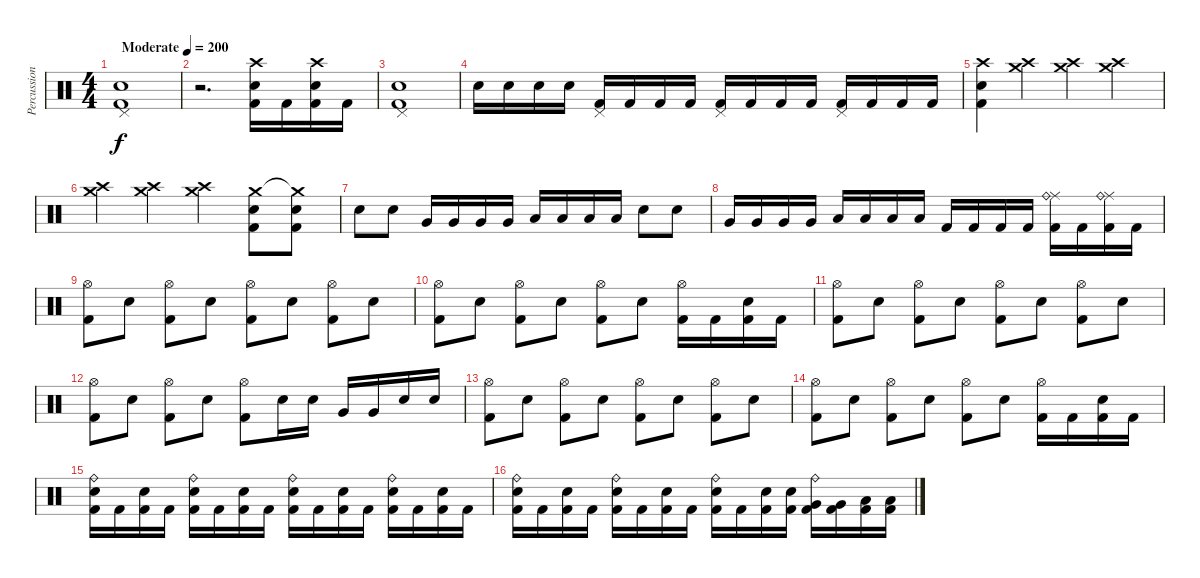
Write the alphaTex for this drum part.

\track ("Percussions" "Percussion") {instrument percussion}
\staff {score}
\articulation defaults
\ts (4 4)
\tempo (200 "Moderate")
\clef neutral
\ks c
("Pedal Hi-Hat (hit)" "Electric Snare (hit)" "Kick (hit) 2").1{dy f} |
r.2{d} ("Crash high (hit)" "Electric Snare (hit)" "Kick (hit) 2").16 "Kick (hit) 2".16 ("Crash high (hit)" "Electric Snare (hit)" "Kick (hit) 2").16 "Kick (hit) 2".16 |
("Pedal Hi-Hat (hit)" "Electric Snare (hit)" "Kick (hit) 2").1 |
"Electric Snare (hit)".16 "Electric Snare (hit)".16 "Electric Snare (hit)".16 "Electric Snare (hit)".16 ("Pedal Hi-Hat (hit)" "Kick (hit) 2").16 "Kick (hit) 2".16 "Kick (hit) 2".16 "Kick (hit) 2".16 ("Pedal Hi-Hat (hit)" "Kick (hit) 2").16 "Kick (hit) 2".16 "Kick (hit) 2".16 "Kick (hit) 2".16 ("Pedal Hi-Hat (hit)" "Kick (hit) 2").16 "Kick (hit) 2".16 "Kick (hit) 2".16 "Kick (hit) 2".16 |
("Crash high (hit)" "Electric Snare (hit)" "Kick (hit) 2").4 ("Crash medium (hit)" "Crash high (hit)").4 ("Crash medium (hit)" "Crash high (hit)").4 ("Crash medium (hit)" "Crash high (hit)").4 |
("Crash medium (hit)" "Crash high (hit)").4 ("Crash medium (hit)" "Crash high (hit)").4 ("Crash medium (hit)" "Crash high (hit)").4 ("Crash medium (hit)" "Electric Snare (hit)" "Kick (hit) 2").8 ("Crash medium (hit)"{t} "Electric Snare (hit)" "Kick (hit) 2").8 |
"Electric Snare (hit)".8 "Electric Snare (hit)".8 "Very Low Tom (hit)".16 "Very Low Tom (hit)".16 "Very Low Tom (hit)".16 "Very Low Tom (hit)".16 "Low Floor Tom (hit)".16 "Low Floor Tom (hit)".16 "Low Floor Tom (hit)".16 "Low Floor Tom (hit)".16 "Electric Snare (hit)".8 "Electric Snare (hit)".8 |
"Very Low Tom (hit)".16 "Very Low Tom (hit)".16 "Very Low Tom (hit)".16 "Very Low Tom (hit)".16 "Low Floor Tom (hit)".16 "Low Floor Tom (hit)".16 "Low Floor Tom (hit)".16 "Low Floor Tom (hit)".16 "Kick (hit) 2".16 "Kick (hit) 2".16 "Kick (hit) 2".16 "Kick (hit) 2".16 ("Ride (middle)" "Ride (bell)" "Kick (hit) 2").16 "Kick (hit) 2".16 ("Ride (middle)" "Ride (bell)" "Kick (hit) 2").16 "Kick (hit) 2".16 |
("Hi-Hat (open)" "Kick (hit) 2").8 "Electric Snare (hit)".8 ("Hi-Hat (open)" "Kick (hit) 2").8 "Electric Snare (hit)".8 ("Hi-Hat (open)" "Kick (hit) 2").8 "Electric Snare (hit)".8 ("Hi-Hat (open)" "Kick (hit) 2").8 "Electric Snare (hit)".8 |
("Hi-Hat (open)" "Kick (hit) 2").8 "Electric Snare (hit)".8 ("Hi-Hat (open)" "Kick (hit) 2").8 "Electric Snare (hit)".8 ("Hi-Hat (open)" "Kick (hit) 2").8 "Electric Snare (hit)".8 ("Hi-Hat (open)" "Kick (hit) 2").16 "Kick (hit) 2".16 ("Electric Snare (hit)" "Kick (hit) 2").16 "Kick (hit) 2".16 |
("Hi-Hat (open)" "Kick (hit) 2").8 "Electric Snare (hit)".8 ("Hi-Hat (open)" "Kick (hit) 2").8 "Electric Snare (hit)".8 ("Hi-Hat (open)" "Kick (hit) 2").8 "Electric Snare (hit)".8 ("Hi-Hat (open)" "Kick (hit) 2").8 "Electric Snare (hit)".8 |
("Hi-Hat (open)" "Kick (hit) 2").8 "Electric Snare (hit)".8 ("Hi-Hat (open)" "Kick (hit) 2").8 "Electric Snare (hit)".8 ("Hi-Hat (open)" "Kick (hit) 2").8 "Electric Snare (hit)".16 "Electric Snare (hit)".16 "Very Low Tom (hit)".16 "Very Low Tom (hit)".16 "Electric Snare (hit)".16 "Electric Snare (hit)".16 |
("Hi-Hat (open)" "Kick (hit) 2").8 "Electric Snare (hit)".8 ("Hi-Hat (open)" "Kick (hit) 2").8 "Electric Snare (hit)".8 ("Hi-Hat (open)" "Kick (hit) 2").8 "Electric Snare (hit)".8 ("Hi-Hat (open)" "Kick (hit) 2").8 "Electric Snare (hit)".8 |
("Hi-Hat (open)" "Kick (hit) 2").8 "Electric Snare (hit)".8 ("Hi-Hat (open)" "Kick (hit) 2").8 "Electric Snare (hit)".8 ("Hi-Hat (open)" "Kick (hit) 2").8 "Electric Snare (hit)".8 ("Hi-Hat (open)" "Kick (hit) 2").16 "Kick (hit) 2".16 ("Electric Snare (hit)" "Kick (hit) 2").16 "Kick (hit) 2".16 |
("Ride (bell)" "Electric Snare (hit)" "Kick (hit) 2").16 "Kick (hit) 2".16 ("Electric Snare (hit)" "Kick (hit) 2").16 "Kick (hit) 2".16 ("Ride (bell)" "Electric Snare (hit)" "Kick (hit) 2").16 "Kick (hit) 2".16 ("Electric Snare (hit)" "Kick (hit) 2").16 "Kick (hit) 2".16 ("Ride (bell)" "Electric Snare (hit)" "Kick (hit) 2").16 "Kick (hit) 2".16 ("Electric Snare (hit)" "Kick (hit) 2").16 "Kick (hit) 2".16 ("Ride (bell)" "Electric Snare (hit)" "Kick (hit) 2").16 "Kick (hit) 2".16 ("Electric Snare (hit)" "Kick (hit) 2").16 "Kick (hit) 2".16 |
("Ride (bell)" "Electric Snare (hit)" "Kick (hit) 2").16 "Kick (hit) 2".16 ("Electric Snare (hit)" "Kick (hit) 2").16 "Kick (hit) 2".16 ("Ride (bell)" "Electric Snare (hit)" "Kick (hit) 2").16 "Kick (hit) 2".16 ("Electric Snare (hit)" "Kick (hit) 2").16 "Kick (hit) 2".16 ("Ride (bell)" "Electric Snare (hit)" "Kick (hit) 2").16 "Kick (hit) 2".16 ("Electric Snare (hit)" "Kick (hit) 2").16 ("Electric Snare (hit)" "Kick (hit) 2").16 ("Ride (bell)" "Very Low Tom (hit)" "Kick (hit) 2").16 ("Very Low Tom (hit)" "Kick (hit) 2").16 ("Low Floor Tom (hit)" "Kick (hit) 2").16 ("Low Floor Tom (hit)" "Kick (hit) 2").16
